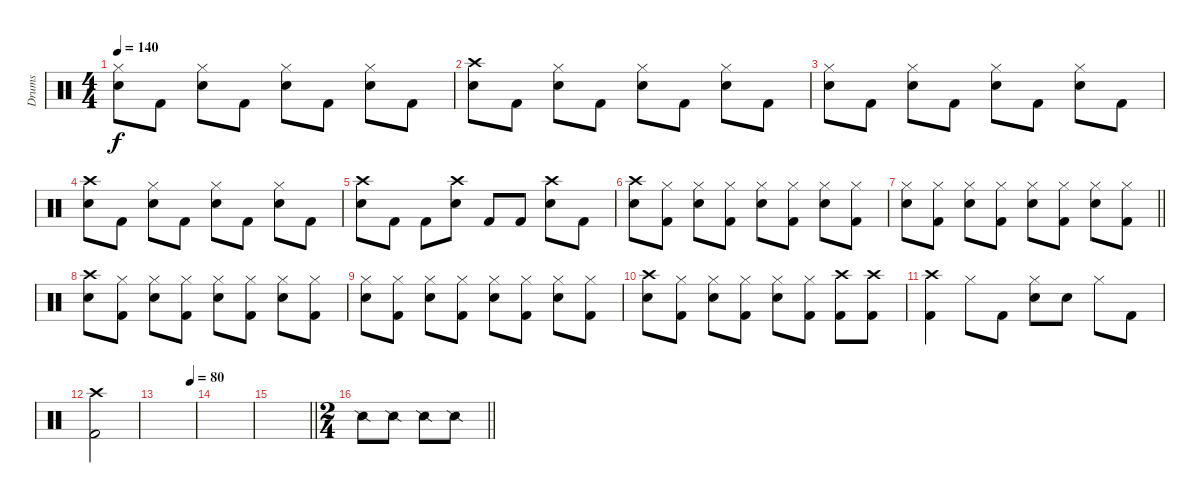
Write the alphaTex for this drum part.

\track ("Drums" "Drums") {instrument percussion}
\staff {score}
\articulation defaults
\ts (4 4)
\tempo 140
\clef neutral
\ks c
("Hi-Hat (closed)" "Electric Snare (hit)").8{dy f} "Kick (hit) 2".8 ("Hi-Hat (closed)" "Electric Snare (hit)").8 "Kick (hit) 2".8 ("Hi-Hat (closed)" "Electric Snare (hit)").8 "Kick (hit) 2".8 ("Hi-Hat (closed)" "Electric Snare (hit)").8 "Kick (hit) 2".8 |
("Crash high (hit)" "Electric Snare (hit)").8 "Kick (hit) 2".8 ("Hi-Hat (closed)" "Electric Snare (hit)").8 "Kick (hit) 2".8 ("Hi-Hat (closed)" "Electric Snare (hit)").8 "Kick (hit) 2".8 ("Hi-Hat (closed)" "Electric Snare (hit)").8 "Kick (hit) 2".8 |
("Hi-Hat (closed)" "Electric Snare (hit)").8 "Kick (hit) 2".8 ("Hi-Hat (closed)" "Electric Snare (hit)").8 "Kick (hit) 2".8 ("Hi-Hat (closed)" "Electric Snare (hit)").8 "Kick (hit) 2".8 ("Hi-Hat (closed)" "Electric Snare (hit)").8 "Kick (hit) 2".8 |
("Crash high (hit)" "Electric Snare (hit)").8 "Kick (hit) 2".8 ("Hi-Hat (closed)" "Electric Snare (hit)").8 "Kick (hit) 2".8 ("Hi-Hat (closed)" "Electric Snare (hit)").8 "Kick (hit) 2".8 ("Hi-Hat (closed)" "Electric Snare (hit)").8 "Kick (hit) 2".8 |
("Crash high (hit)" "Electric Snare (hit)").8 "Kick (hit) 2".8 "Kick (hit) 2".8 ("Crash high (hit)" "Electric Snare (hit)").8 "Kick (hit) 2".8 "Kick (hit) 2".8 ("Crash high (hit)" "Electric Snare (hit)").8 "Kick (hit) 2".8 |
("Crash high (hit)" "Electric Snare (hit)").8 ("Hi-Hat (closed)" "Kick (hit) 2").8 ("Hi-Hat (closed)" "Electric Snare (hit)").8 ("Hi-Hat (closed)" "Kick (hit) 2").8 ("Hi-Hat (closed)" "Electric Snare (hit)").8 ("Hi-Hat (closed)" "Kick (hit) 2").8 ("Hi-Hat (closed)" "Electric Snare (hit)").8 ("Hi-Hat (closed)" "Kick (hit) 2").8 |
\barLineRight lightlight
("Hi-Hat (closed)" "Electric Snare (hit)").8 ("Hi-Hat (closed)" "Kick (hit) 2").8 ("Hi-Hat (closed)" "Electric Snare (hit)").8 ("Hi-Hat (closed)" "Kick (hit) 2").8 ("Hi-Hat (closed)" "Electric Snare (hit)").8 ("Hi-Hat (closed)" "Kick (hit) 2").8 ("Hi-Hat (closed)" "Electric Snare (hit)").8 ("Hi-Hat (closed)" "Kick (hit) 2").8 |
("Crash high (hit)" "Electric Snare (hit)").8 ("Hi-Hat (closed)" "Kick (hit) 2").8 ("Hi-Hat (closed)" "Electric Snare (hit)").8 ("Hi-Hat (closed)" "Kick (hit) 2").8 ("Hi-Hat (closed)" "Electric Snare (hit)").8 ("Hi-Hat (closed)" "Kick (hit) 2").8 ("Hi-Hat (closed)" "Electric Snare (hit)").8 ("Hi-Hat (closed)" "Kick (hit) 2").8 |
("Hi-Hat (closed)" "Electric Snare (hit)").8 ("Hi-Hat (closed)" "Kick (hit) 2").8 ("Hi-Hat (closed)" "Electric Snare (hit)").8 ("Hi-Hat (closed)" "Kick (hit) 2").8 ("Hi-Hat (closed)" "Electric Snare (hit)").8 ("Hi-Hat (closed)" "Kick (hit) 2").8 ("Hi-Hat (closed)" "Electric Snare (hit)").8 ("Hi-Hat (closed)" "Kick (hit) 2").8 |
("Crash high (hit)" "Electric Snare (hit)").8 ("Hi-Hat (closed)" "Kick (hit) 2").8 ("Hi-Hat (closed)" "Electric Snare (hit)").8 ("Hi-Hat (closed)" "Kick (hit) 2").8 ("Hi-Hat (closed)" "Electric Snare (hit)").8 ("Hi-Hat (closed)" "Kick (hit) 2").8 ("Crash high (hit)" "Kick (hit) 2").8 ("Crash high (hit)" "Kick (hit) 2").8 |
("Crash high (hit)" "Kick (hit) 2").4 "Hi-Hat (closed)".8 "Kick (hit) 2".8 ("Hi-Hat (closed)" "Electric Snare (hit)").8 "Electric Snare (hit)".8 "Hi-Hat (closed)".8 "Kick (hit) 2".8 |
("Crash high (hit)" "Kick (hit) 2").2 |
\tempo (80 0.875)
|
|
\barLineRight lightlight
|
\ts (2 4)
\barLineRight lightlight "Snare (side stick) 2".8 "Snare (side stick) 2".8 "Snare (side stick) 2".8 "Snare (side stick) 2".8
